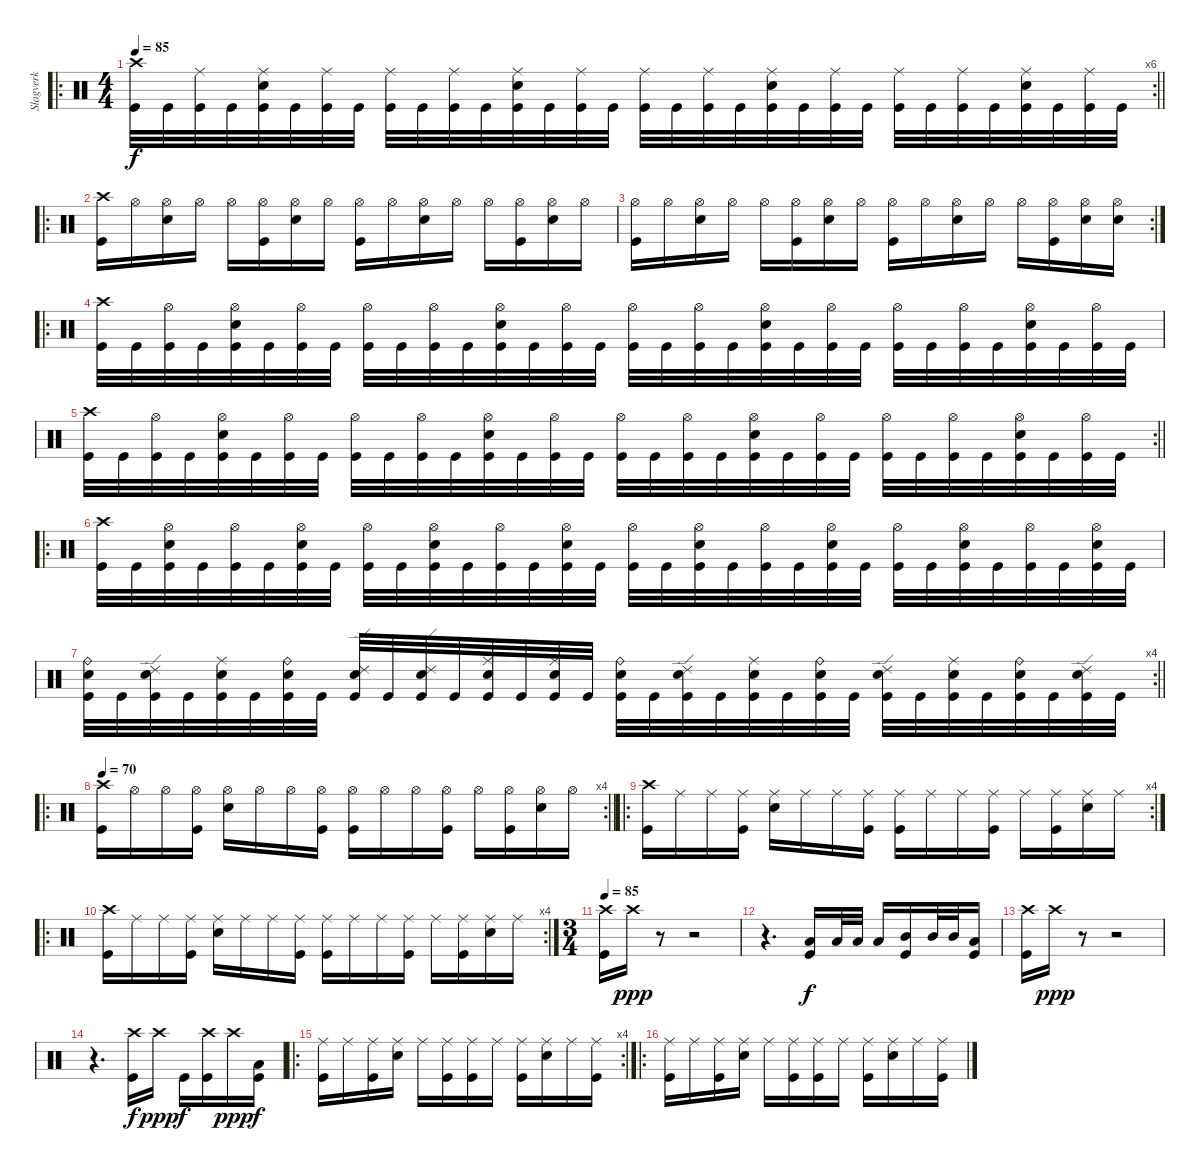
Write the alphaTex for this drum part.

\track ("Slagverk" "Slagverk") {instrument percussion}
\staff {score}
\articulation defaults
\ro
\rc 6
\ts (4 4)
\tempo 85
\clef neutral
\barLineRight lightlight
\ks c
("Crash high (hit)" "Kick (hit)").32{dy f} "Kick (hit)".32 ("Ride (middle)" "Kick (hit)").32 "Kick (hit)".32 ("Ride (middle)" "Snare (hit) 2" "Kick (hit)").32 "Kick (hit)".32 ("Ride (middle)" "Kick (hit)").32 "Kick (hit)".32 ("Ride (middle)" "Kick (hit)").32 "Kick (hit)".32 ("Ride (middle)" "Kick (hit)").32 "Kick (hit)".32 ("Ride (middle)" "Snare (hit) 2" "Kick (hit)").32 "Kick (hit)".32 ("Ride (middle)" "Kick (hit)").32 "Kick (hit)".32 ("Ride (middle)" "Kick (hit)").32 "Kick (hit)".32 ("Ride (middle)" "Kick (hit)").32 "Kick (hit)".32 ("Ride (middle)" "Snare (hit) 2" "Kick (hit)").32 "Kick (hit)".32 ("Ride (middle)" "Kick (hit)").32 "Kick (hit)".32 ("Ride (middle)" "Kick (hit)").32 "Kick (hit)".32 ("Ride (middle)" "Kick (hit)").32 "Kick (hit)".32 ("Ride (middle)" "Snare (hit) 2" "Kick (hit)").32 "Kick (hit)".32 ("Ride (middle)" "Kick (hit)").32 "Kick (hit)".32 |
\ro
("Crash high (hit)" "Kick (hit)").16 "Hi-Hat (open)".16 ("Hi-Hat (open)" "Snare (hit) 2").16 "Hi-Hat (open)".16 "Hi-Hat (open)".16 ("Hi-Hat (open)" "Kick (hit)").16 ("Hi-Hat (open)" "Snare (hit) 2").16 "Hi-Hat (open)".16 ("Hi-Hat (open)" "Kick (hit)").16 "Hi-Hat (open)".16 ("Hi-Hat (open)" "Snare (hit) 2").16 "Hi-Hat (open)".16 "Hi-Hat (open)".16 ("Hi-Hat (open)" "Kick (hit)").16 ("Hi-Hat (open)" "Snare (hit) 2").16 "Hi-Hat (open)".16 |
\rc 2
("Hi-Hat (open)" "Kick (hit)").16 "Hi-Hat (open)".16 ("Hi-Hat (open)" "Snare (hit) 2").16 "Hi-Hat (open)".16 "Hi-Hat (open)".16 ("Hi-Hat (open)" "Kick (hit)").16 ("Hi-Hat (open)" "Snare (hit) 2").16 "Hi-Hat (open)".16 ("Hi-Hat (open)" "Kick (hit)").16 "Hi-Hat (open)".16 ("Hi-Hat (open)" "Snare (hit) 2").16 "Hi-Hat (open)".16 "Hi-Hat (open)".16 ("Hi-Hat (open)" "Kick (hit)").16 ("Hi-Hat (open)" "Snare (hit) 2").16 ("Hi-Hat (open)" "Snare (hit) 2").16 |
\ro
("Crash high (hit)" "Kick (hit)").32 "Kick (hit)".32 ("Hi-Hat (open)" "Kick (hit)").32 "Kick (hit)".32 ("Hi-Hat (open)" "Snare (hit) 2" "Kick (hit)").32 "Kick (hit)".32 ("Hi-Hat (open)" "Kick (hit)").32 "Kick (hit)".32 ("Hi-Hat (open)" "Kick (hit)").32 "Kick (hit)".32 ("Hi-Hat (open)" "Kick (hit)").32 "Kick (hit)".32 ("Hi-Hat (open)" "Snare (hit) 2" "Kick (hit)").32 "Kick (hit)".32 ("Hi-Hat (open)" "Kick (hit)").32 "Kick (hit)".32 ("Hi-Hat (open)" "Kick (hit)").32 "Kick (hit)".32 ("Hi-Hat (open)" "Kick (hit)").32 "Kick (hit)".32 ("Hi-Hat (open)" "Snare (hit) 2" "Kick (hit)").32 "Kick (hit)".32 ("Hi-Hat (open)" "Kick (hit)").32 "Kick (hit)".32 ("Hi-Hat (open)" "Kick (hit)").32 "Kick (hit)".32 ("Hi-Hat (open)" "Kick (hit)").32 "Kick (hit)".32 ("Hi-Hat (open)" "Snare (hit) 2" "Kick (hit)").32 "Kick (hit)".32 ("Hi-Hat (open)" "Kick (hit)").32 "Kick (hit)".32 |
\rc 2
\barLineRight lightlight
("Crash high (hit)" "Kick (hit)").32 "Kick (hit)".32 ("Hi-Hat (open)" "Kick (hit)").32 "Kick (hit)".32 ("Hi-Hat (open)" "Snare (hit) 2" "Kick (hit)").32 "Kick (hit)".32 ("Hi-Hat (open)" "Kick (hit)").32 "Kick (hit)".32 ("Hi-Hat (open)" "Kick (hit)").32 "Kick (hit)".32 ("Hi-Hat (open)" "Kick (hit)").32 "Kick (hit)".32 ("Hi-Hat (open)" "Snare (hit) 2" "Kick (hit)").32 "Kick (hit)".32 ("Hi-Hat (open)" "Kick (hit)").32 "Kick (hit)".32 ("Hi-Hat (open)" "Kick (hit)").32 "Kick (hit)".32 ("Hi-Hat (open)" "Kick (hit)").32 "Kick (hit)".32 ("Hi-Hat (open)" "Snare (hit) 2" "Kick (hit)").32 "Kick (hit)".32 ("Hi-Hat (open)" "Kick (hit)").32 "Kick (hit)".32 ("Hi-Hat (open)" "Kick (hit)").32 "Kick (hit)".32 ("Hi-Hat (open)" "Kick (hit)").32 "Kick (hit)".32 ("Hi-Hat (open)" "Snare (hit) 2" "Kick (hit)").32 "Kick (hit)".32 ("Hi-Hat (open)" "Kick (hit)").32 "Kick (hit)".32 |
\ro
("Crash high (hit)" "Kick (hit)").32 "Kick (hit)".32 ("Hi-Hat (open)" "Snare (hit) 2" "Kick (hit)").32 "Kick (hit)".32 ("Hi-Hat (open)" "Kick (hit)").32 "Kick (hit)".32 ("Hi-Hat (open)" "Snare (hit) 2" "Kick (hit)").32 "Kick (hit)".32 ("Hi-Hat (open)" "Kick (hit)").32 "Kick (hit)".32 ("Hi-Hat (open)" "Snare (hit) 2" "Kick (hit)").32 "Kick (hit)".32 ("Hi-Hat (open)" "Kick (hit)").32 "Kick (hit)".32 ("Hi-Hat (open)" "Snare (hit) 2" "Kick (hit)").32 "Kick (hit)".32 ("Hi-Hat (open)" "Kick (hit)").32 "Kick (hit)".32 ("Hi-Hat (open)" "Snare (hit) 2" "Kick (hit)").32 "Kick (hit)".32 ("Hi-Hat (open)" "Kick (hit)").32 "Kick (hit)".32 ("Hi-Hat (open)" "Snare (hit) 2" "Kick (hit)").32 "Kick (hit)".32 ("Hi-Hat (open)" "Kick (hit)").32 "Kick (hit)".32 ("Hi-Hat (open)" "Snare (hit) 2" "Kick (hit)").32 "Kick (hit)".32 ("Hi-Hat (open)" "Kick (hit)").32 "Kick (hit)".32 ("Hi-Hat (open)" "Snare (hit) 2" "Kick (hit)").32 "Kick (hit)".32 |
\rc 4
\barLineRight lightlight
("Ride (bell)" "Snare (hit) 2" "Kick (hit)").32 "Kick (hit)".32 ("Ride (edge) 2" "Snare (hit) 2" "Kick (hit)").32 "Kick (hit)".32 ("Ride (middle)" "Snare (hit) 2" "Kick (hit)").32 "Kick (hit)".32 ("Ride (bell)" "Snare (hit) 2" "Kick (hit)").32 "Kick (hit)".32 ("Ride (edge) 2" "Snare (hit) 2" "Kick (hit)").32 "Kick (hit)".32 ("Ride (edge) 2" "Snare (hit) 2" "Kick (hit)").32 "Kick (hit)".32 ("Ride (middle)" "Snare (hit) 2" "Kick (hit)").32 "Kick (hit)".32 ("Ride (middle)" "Snare (hit) 2" "Kick (hit)").32 "Kick (hit)".32 ("Ride (bell)" "Snare (hit) 2" "Kick (hit)").32 "Kick (hit)".32 ("Ride (edge) 2" "Snare (hit) 2" "Kick (hit)").32 "Kick (hit)".32 ("Ride (middle)" "Snare (hit) 2" "Kick (hit)").32 "Kick (hit)".32 ("Ride (bell)" "Snare (hit) 2" "Kick (hit)").32 "Kick (hit)".32 ("Ride (edge) 2" "Snare (hit) 2" "Kick (hit)").32 "Kick (hit)".32 ("Ride (middle)" "Snare (hit) 2" "Kick (hit)").32 "Kick (hit)".32 ("Ride (bell)" "Snare (hit) 2" "Kick (hit)").32 "Kick (hit)".32 ("Ride (edge) 2" "Snare (hit) 2" "Kick (hit)").32 "Kick (hit)".32 |
\ro
\rc 4
\tempo 70
\barLineRight lightlight
("Crash high (hit)" "Kick (hit)").16 "Hi-Hat (open)".16 "Hi-Hat (open)".16 ("Hi-Hat (open)" "Kick (hit)").16 ("Hi-Hat (open)" "Snare (hit) 2").16 "Hi-Hat (open)".16 "Hi-Hat (open)".16 ("Hi-Hat (open)" "Kick (hit)").16 ("Hi-Hat (open)" "Kick (hit)").16 "Hi-Hat (open)".16 "Hi-Hat (open)".16 ("Hi-Hat (open)" "Kick (hit)").16 "Hi-Hat (open)".16 ("Hi-Hat (open)" "Kick (hit)").16 ("Hi-Hat (open)" "Snare (hit) 2").16 "Hi-Hat (open)".16 |
\ro
\rc 4
("Crash high (hit)" "Kick (hit)").16 "Ride (middle)".16 "Ride (middle)".16 ("Ride (middle)" "Kick (hit)").16 ("Ride (middle)" "Snare (hit) 2").16 "Ride (middle)".16 "Ride (middle)".16 ("Ride (middle)" "Kick (hit)").16 ("Ride (middle)" "Kick (hit)").16 "Ride (middle)".16 "Ride (middle)".16 ("Ride (middle)" "Kick (hit)").16 "Ride (middle)".16 ("Ride (middle)" "Kick (hit)").16 ("Ride (middle)" "Snare (hit) 2").16 "Ride (middle)".16 |
\ro
\rc 4
("Crash high (hit)" "Kick (hit)").16 "Ride (middle)".16 "Ride (middle)".16 ("Ride (middle)" "Kick (hit)").16 ("Ride (middle)" "Snare (hit) 2").16 "Ride (middle)".16 "Ride (middle)".16 ("Ride (middle)" "Kick (hit)").16 ("Ride (middle)" "Kick (hit)").16 "Ride (middle)".16 "Ride (middle)".16 ("Ride (middle)" "Kick (hit)").16 "Ride (middle)".16 ("Ride (middle)" "Kick (hit)").16 ("Ride (middle)" "Snare (hit) 2").16 "Ride (middle)".16 |
\ts (3 4)
\tempo 85
("Crash high (hit)" "Kick (hit)").16 "Crash high (hit)".16{dy ppp} r.8 r.2 |
r.4{d} ("Low Tom (hit)" "Kick (hit)").16{dy f} "Low Tom (hit)".32 "Low Tom (hit)".32 "Low Tom (hit)".16 ("Mid Tom (hit)" "Kick (hit)").16 "Mid Tom (hit)".32 "Mid Tom (hit)".32 ("Low Tom (hit)" "Kick (hit)").16 |
("Crash high (hit)" "Kick (hit)").16 "Crash high (hit)".16{dy ppp} r.8 r.2 |
r.4{d} ("Crash high (hit)" "Kick (hit)").16{dy f} "Crash high (hit)".16{dy ppp} "Kick (hit)".16{dy f} ("Crash high (hit)" "Kick (hit)").16 "Crash high (hit)".16{dy ppp} ("Low Tom (hit)" "Kick (hit)").16{dy f} |
\ro
\rc 4
("Ride (middle)" "Kick (hit)").16 "Ride (middle)".16 ("Ride (middle)" "Kick (hit)").16 ("Ride (middle)" "Snare (hit) 2").16 "Ride (middle)".16 ("Ride (middle)" "Kick (hit)").16 ("Ride (middle)" "Kick (hit)").16 "Ride (middle)".16 ("Ride (middle)" "Kick (hit)").16 ("Ride (middle)" "Snare (hit) 2").16 "Ride (middle)".16 ("Ride (middle)" "Kick (hit)").16 |
\ro
("Ride (middle)" "Kick (hit)").16 "Ride (middle)".16 ("Ride (middle)" "Kick (hit)").16 ("Ride (middle)" "Snare (hit) 2").16 "Ride (middle)".16 ("Ride (middle)" "Kick (hit)").16 ("Ride (middle)" "Kick (hit)").16 "Ride (middle)".16 ("Ride (middle)" "Kick (hit)").16 ("Ride (middle)" "Snare (hit) 2").16 "Ride (middle)".16 ("Ride (middle)" "Kick (hit)").16
